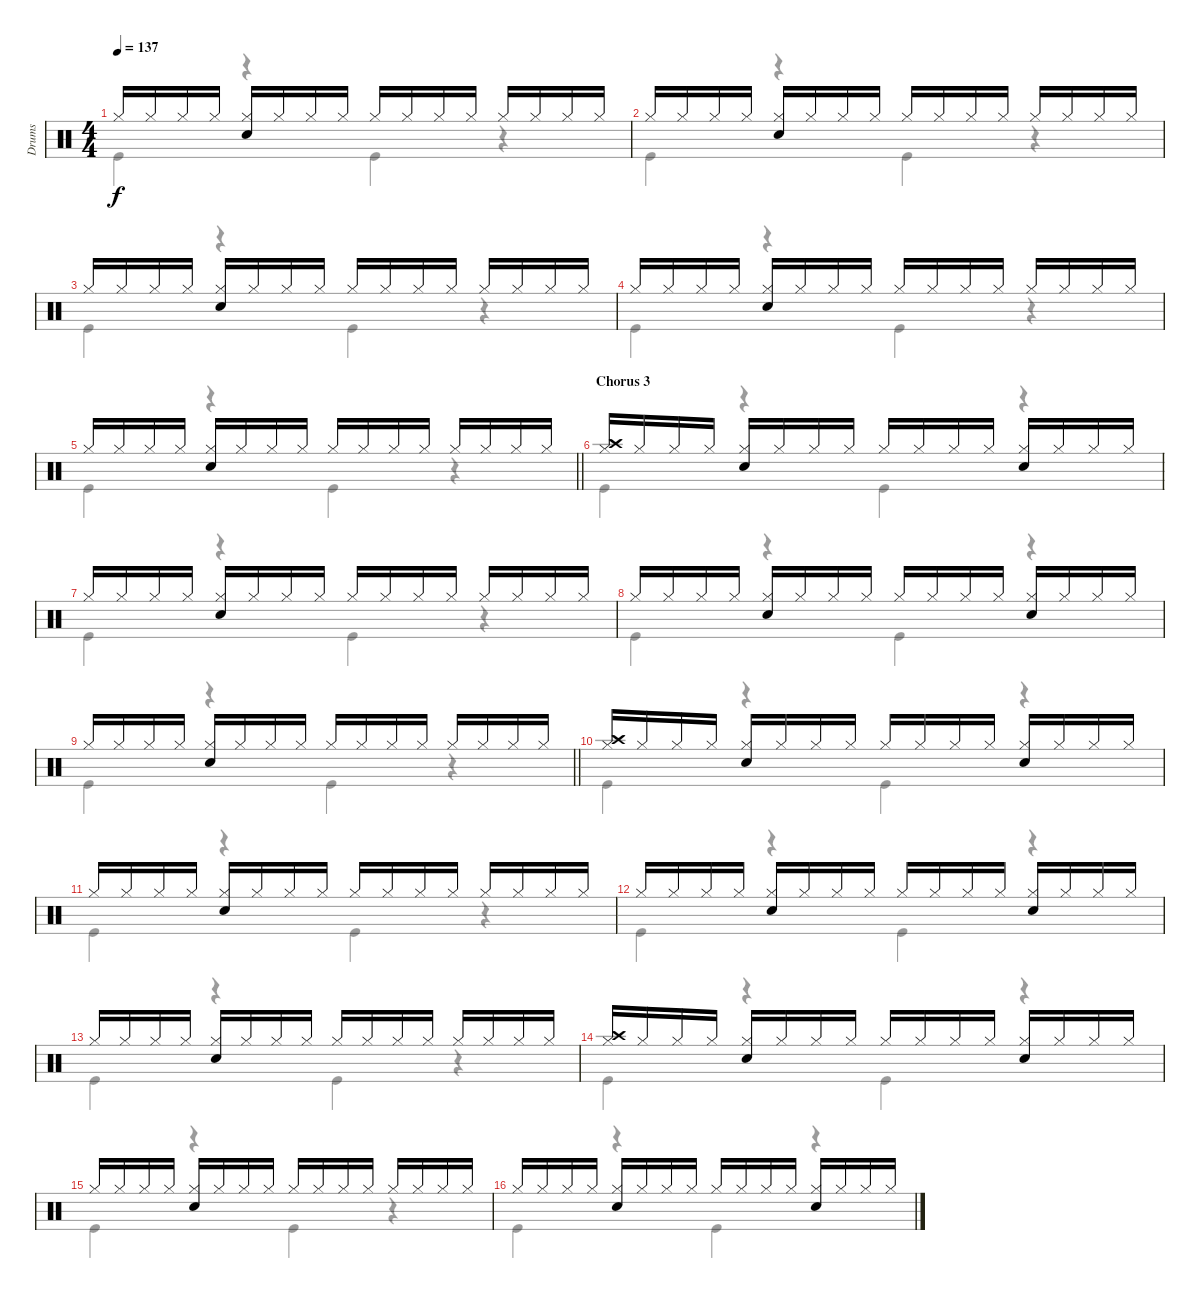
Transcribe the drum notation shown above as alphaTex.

\track ("Drums" "Drums") {instrument percussion}
\staff {score}
\articulation defaults
\voice
\ts (4 4)
\tempo 137
\clef neutral
\ks c "Hi-Hat (closed)".16{dy f} "Hi-Hat (closed)".16 "Hi-Hat (closed)".16 "Hi-Hat (closed)".16
("Hi-Hat (closed)" "Snare (hit) 2").16 "Hi-Hat (closed)".16 "Hi-Hat (closed)".16 "Hi-Hat (closed)".16 "Hi-Hat (closed)".16 "Hi-Hat (closed)".16 "Hi-Hat (closed)".16 "Hi-Hat (closed)".16 "Hi-Hat (closed)".16 "Hi-Hat (closed)".16 "Hi-Hat (closed)".16 "Hi-Hat (closed)".16 |
"Hi-Hat (closed)".16 "Hi-Hat (closed)".16 "Hi-Hat (closed)".16 "Hi-Hat (closed)".16 ("Hi-Hat (closed)" "Snare (hit) 2").16 "Hi-Hat (closed)".16 "Hi-Hat (closed)".16 "Hi-Hat (closed)".16 "Hi-Hat (closed)".16 "Hi-Hat (closed)".16 "Hi-Hat (closed)".16 "Hi-Hat (closed)".16 "Hi-Hat (closed)".16 "Hi-Hat (closed)".16 "Hi-Hat (closed)".16 "Hi-Hat (closed)".16 |
"Hi-Hat (closed)".16 "Hi-Hat (closed)".16 "Hi-Hat (closed)".16 "Hi-Hat (closed)".16 ("Hi-Hat (closed)" "Snare (hit) 2").16 "Hi-Hat (closed)".16 "Hi-Hat (closed)".16 "Hi-Hat (closed)".16 "Hi-Hat (closed)".16 "Hi-Hat (closed)".16 "Hi-Hat (closed)".16 "Hi-Hat (closed)".16 "Hi-Hat (closed)".16 "Hi-Hat (closed)".16 "Hi-Hat (closed)".16 "Hi-Hat (closed)".16 |
"Hi-Hat (closed)".16 "Hi-Hat (closed)".16 "Hi-Hat (closed)".16 "Hi-Hat (closed)".16 ("Hi-Hat (closed)" "Snare (hit) 2").16 "Hi-Hat (closed)".16 "Hi-Hat (closed)".16 "Hi-Hat (closed)".16 "Hi-Hat (closed)".16 "Hi-Hat (closed)".16 "Hi-Hat (closed)".16 "Hi-Hat (closed)".16 "Hi-Hat (closed)".16 "Hi-Hat (closed)".16 "Hi-Hat (closed)".16 "Hi-Hat (closed)".16 |
\barLineRight lightlight "Hi-Hat (closed)".16 "Hi-Hat (closed)".16 "Hi-Hat (closed)".16 "Hi-Hat (closed)".16
("Hi-Hat (closed)" "Snare (hit) 2").16 "Hi-Hat (closed)".16 "Hi-Hat (closed)".16 "Hi-Hat (closed)".16 "Hi-Hat (closed)".16 "Hi-Hat (closed)".16 "Hi-Hat (closed)".16 "Hi-Hat (closed)".16 "Hi-Hat (closed)".16 "Hi-Hat (closed)".16 "Hi-Hat (closed)".16 "Hi-Hat (closed)".16 |
\section ("" "Chorus 3")
("Hi-Hat (closed)" "Crash high (hit)").16 "Hi-Hat (closed)".16 "Hi-Hat (closed)".16 "Hi-Hat (closed)".16 ("Hi-Hat (closed)" "Snare (hit) 2").16 "Hi-Hat (closed)".16 "Hi-Hat (closed)".16 "Hi-Hat (closed)".16 "Hi-Hat (closed)".16 "Hi-Hat (closed)".16 "Hi-Hat (closed)".16 "Hi-Hat (closed)".16 ("Hi-Hat (closed)" "Hand Clap (hit)").16 "Hi-Hat (closed)".16 "Hi-Hat (closed)".16 "Hi-Hat (closed)".16 |
"Hi-Hat (closed)".16 "Hi-Hat (closed)".16 "Hi-Hat (closed)".16 "Hi-Hat (closed)".16 ("Hi-Hat (closed)" "Snare (hit) 2").16 "Hi-Hat (closed)".16 "Hi-Hat (closed)".16 "Hi-Hat (closed)".16 "Hi-Hat (closed)".16 "Hi-Hat (closed)".16 "Hi-Hat (closed)".16 "Hi-Hat (closed)".16 "Hi-Hat (closed)".16 "Hi-Hat (closed)".16 "Hi-Hat (closed)".16 "Hi-Hat (closed)".16 |
"Hi-Hat (closed)".16 "Hi-Hat (closed)".16 "Hi-Hat (closed)".16 "Hi-Hat (closed)".16 ("Hi-Hat (closed)" "Snare (hit) 2").16 "Hi-Hat (closed)".16 "Hi-Hat (closed)".16 "Hi-Hat (closed)".16 "Hi-Hat (closed)".16 "Hi-Hat (closed)".16 "Hi-Hat (closed)".16 "Hi-Hat (closed)".16 ("Hi-Hat (closed)" "Hand Clap (hit)").16 "Hi-Hat (closed)".16 "Hi-Hat (closed)".16 "Hi-Hat (closed)".16 |
\barLineRight lightlight "Hi-Hat (closed)".16 "Hi-Hat (closed)".16 "Hi-Hat (closed)".16 "Hi-Hat (closed)".16
("Hi-Hat (closed)" "Snare (hit) 2").16 "Hi-Hat (closed)".16 "Hi-Hat (closed)".16 "Hi-Hat (closed)".16 "Hi-Hat (closed)".16 "Hi-Hat (closed)".16 "Hi-Hat (closed)".16 "Hi-Hat (closed)".16 "Hi-Hat (closed)".16 "Hi-Hat (closed)".16 "Hi-Hat (closed)".16 "Hi-Hat (closed)".16 |
("Hi-Hat (closed)" "Crash high (hit)").16 "Hi-Hat (closed)".16 "Hi-Hat (closed)".16 "Hi-Hat (closed)".16 ("Hi-Hat (closed)" "Snare (hit) 2").16 "Hi-Hat (closed)".16 "Hi-Hat (closed)".16 "Hi-Hat (closed)".16 "Hi-Hat (closed)".16 "Hi-Hat (closed)".16 "Hi-Hat (closed)".16 "Hi-Hat (closed)".16 ("Hi-Hat (closed)" "Hand Clap (hit)").16 "Hi-Hat (closed)".16 "Hi-Hat (closed)".16 "Hi-Hat (closed)".16 |
"Hi-Hat (closed)".16 "Hi-Hat (closed)".16 "Hi-Hat (closed)".16 "Hi-Hat (closed)".16 ("Hi-Hat (closed)" "Snare (hit) 2").16 "Hi-Hat (closed)".16 "Hi-Hat (closed)".16 "Hi-Hat (closed)".16 "Hi-Hat (closed)".16 "Hi-Hat (closed)".16 "Hi-Hat (closed)".16 "Hi-Hat (closed)".16 "Hi-Hat (closed)".16 "Hi-Hat (closed)".16 "Hi-Hat (closed)".16 "Hi-Hat (closed)".16 |
"Hi-Hat (closed)".16 "Hi-Hat (closed)".16 "Hi-Hat (closed)".16 "Hi-Hat (closed)".16 ("Hi-Hat (closed)" "Snare (hit) 2").16 "Hi-Hat (closed)".16 "Hi-Hat (closed)".16 "Hi-Hat (closed)".16 "Hi-Hat (closed)".16 "Hi-Hat (closed)".16 "Hi-Hat (closed)".16 "Hi-Hat (closed)".16 ("Hi-Hat (closed)" "Hand Clap (hit)").16 "Hi-Hat (closed)".16 "Hi-Hat (closed)".16 "Hi-Hat (closed)".16 |
"Hi-Hat (closed)".16 "Hi-Hat (closed)".16 "Hi-Hat (closed)".16 "Hi-Hat (closed)".16 ("Hi-Hat (closed)" "Snare (hit) 2").16 "Hi-Hat (closed)".16 "Hi-Hat (closed)".16 "Hi-Hat (closed)".16 "Hi-Hat (closed)".16 "Hi-Hat (closed)".16 "Hi-Hat (closed)".16 "Hi-Hat (closed)".16 "Hi-Hat (closed)".16 "Hi-Hat (closed)".16 "Hi-Hat (closed)".16 "Hi-Hat (closed)".16 |
("Hi-Hat (closed)" "Crash high (hit)").16 "Hi-Hat (closed)".16 "Hi-Hat (closed)".16 "Hi-Hat (closed)".16 ("Hi-Hat (closed)" "Snare (hit) 2").16 "Hi-Hat (closed)".16 "Hi-Hat (closed)".16 "Hi-Hat (closed)".16 "Hi-Hat (closed)".16 "Hi-Hat (closed)".16 "Hi-Hat (closed)".16 "Hi-Hat (closed)".16 ("Hi-Hat (closed)" "Hand Clap (hit)").16 "Hi-Hat (closed)".16 "Hi-Hat (closed)".16 "Hi-Hat (closed)".16 |
"Hi-Hat (closed)".16 "Hi-Hat (closed)".16 "Hi-Hat (closed)".16 "Hi-Hat (closed)".16 ("Hi-Hat (closed)" "Snare (hit) 2").16 "Hi-Hat (closed)".16 "Hi-Hat (closed)".16 "Hi-Hat (closed)".16 "Hi-Hat (closed)".16 "Hi-Hat (closed)".16 "Hi-Hat (closed)".16 "Hi-Hat (closed)".16 "Hi-Hat (closed)".16 "Hi-Hat (closed)".16 "Hi-Hat (closed)".16 "Hi-Hat (closed)".16 |
"Hi-Hat (closed)".16 "Hi-Hat (closed)".16 "Hi-Hat (closed)".16 "Hi-Hat (closed)".16 ("Hi-Hat (closed)" "Snare (hit) 2").16 "Hi-Hat (closed)".16 "Hi-Hat (closed)".16 "Hi-Hat (closed)".16 "Hi-Hat (closed)".16 "Hi-Hat (closed)".16 "Hi-Hat (closed)".16 "Hi-Hat (closed)".16 ("Hi-Hat (closed)" "Hand Clap (hit)").16 "Hi-Hat (closed)".16 "Hi-Hat (closed)".16 "Hi-Hat (closed)".16
\voice
\clef neutral
\ottava regular
\simile none
\ks c "Kick (hit)".4{dy f}
r.4 "Kick (hit)".4 r.4 |
"Kick (hit)".4 r.4 "Kick (hit)".4 r.4 |
"Kick (hit)".4 r.4 "Kick (hit)".4 r.4 |
"Kick (hit)".4 r.4 "Kick (hit)".4 r.4 |
\barLineRight lightlight "Kick (hit)".4
r.4 "Kick (hit)".4 r.4 |
"Kick (hit)".4 r.4 "Kick (hit)".4 r.4 |
"Kick (hit)".4 r.4 "Kick (hit)".4 r.4 |
"Kick (hit)".4 r.4 "Kick (hit)".4 r.4 |
\barLineRight lightlight "Kick (hit)".4
r.4 "Kick (hit)".4 r.4 |
"Kick (hit)".4 r.4 "Kick (hit)".4 r.4 |
"Kick (hit)".4 r.4 "Kick (hit)".4 r.4 |
"Kick (hit)".4 r.4 "Kick (hit)".4 r.4 |
"Kick (hit)".4 r.4 "Kick (hit)".4 r.4 |
"Kick (hit)".4 r.4 "Kick (hit)".4 r.4 |
"Kick (hit)".4 r.4 "Kick (hit)".4 r.4 |
"Kick (hit)".4 r.4 "Kick (hit)".4 r.4
